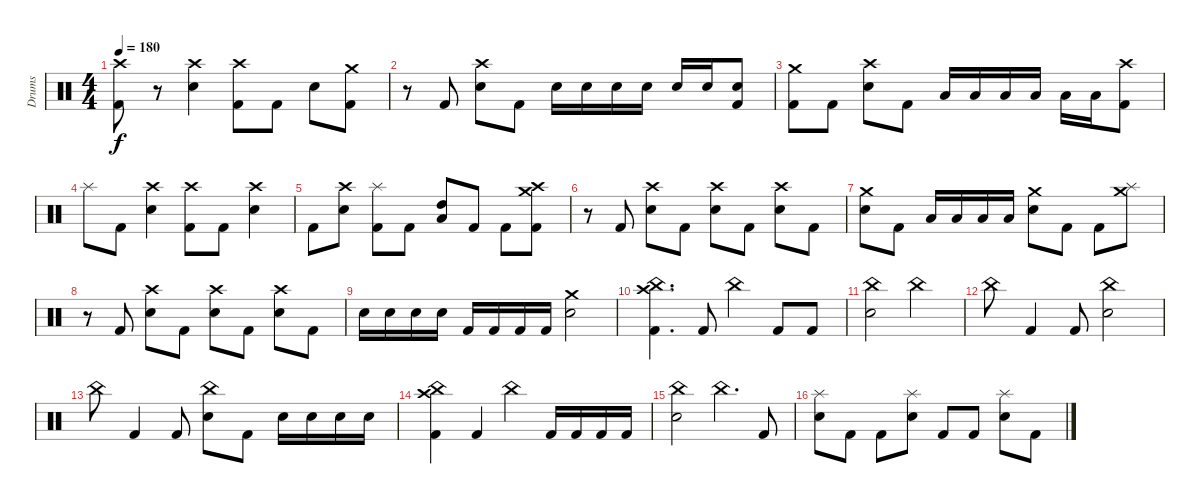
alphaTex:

\track ("Drums" "Drums") {instrument percussion}
\staff {score}
\articulation defaults
\ts (4 4)
\tempo 180
\clef neutral
\ks c
("Crash high (hit)" "Kick (hit) 2").8{dy f} r.8 ("Crash high (hit)" "Snare (hit) 2").4 ("Crash high (hit)" "Kick (hit) 2").8 "Kick (hit) 2".8 "Snare (hit) 2".8 ("Crash medium (hit)" "Kick (hit) 2").8 |
r.8 "Kick (hit) 2".8 ("Crash high (hit)" "Snare (hit) 2").8 "Kick (hit) 2".8 "Snare (hit) 2".16 "Snare (hit) 2".16 "Snare (hit) 2".16 "Snare (hit) 2".16 "Snare (hit) 2".16 "Snare (hit) 2".16 ("Snare (hit) 2" "Kick (hit) 2").8 |
("Crash medium (hit)" "Kick (hit) 2").8 "Kick (hit) 2".8 ("Crash high (hit)" "Snare (hit) 2").8 "Kick (hit) 2".8 "Low Tom (hit)".16 "Low Tom (hit)".16 "Low Floor Tom (hit)".16 "Low Floor Tom (hit)".16 "Low Floor Tom (hit)".16 "Low Floor Tom (hit)".16 ("Crash high (hit)" "Kick (hit) 2").8 |
"Splash (hit)".8 "Kick (hit) 2".8 ("Crash high (hit)" "Snare (hit) 2").4 ("Crash high (hit)" "Kick (hit) 2").8 "Kick (hit) 2".8 ("Crash high (hit)" "Snare (hit) 2").4 |
"Kick (hit) 2".8 ("Crash high (hit)" "Snare (hit) 2").8 ("Splash (hit)" "Kick (hit) 2").8 "Kick (hit) 2".8 ("High Tom (hit)" "Low Tom (hit)").8 "Kick (hit) 2".8 "Kick (hit) 2".8 ("Crash high (hit)" "Crash medium (hit)" "Kick (hit) 2").8 |
r.8 "Kick (hit) 2".8 ("Crash high (hit)" "Snare (hit) 2").8 "Kick (hit) 2".8 ("Crash high (hit)" "Snare (hit) 2").8 "Kick (hit) 2".8 ("Crash high (hit)" "Snare (hit) 2").8 "Kick (hit) 2".8 |
("Crash medium (hit)" "Snare (hit) 2").8 "Kick (hit) 2".8 "Low Tom (hit)".16 "Low Tom (hit)".16 "Low Floor Tom (hit)".16 "Low Floor Tom (hit)".16 ("Crash medium (hit)" "Snare (hit) 2").8 "Kick (hit) 2".8 "Kick (hit) 2".8 ("Crash medium (hit)" "Splash (hit)").8 |
r.8 "Kick (hit) 2".8 ("Crash high (hit)" "Snare (hit) 2").8 "Kick (hit) 2".8 ("Crash high (hit)" "Snare (hit) 2").8 "Kick (hit) 2".8 ("Crash high (hit)" "Snare (hit) 2").8 "Kick (hit) 2".8 |
"Snare (hit) 2".16 "Snare (hit) 2".16 "Snare (hit) 2".16 "Snare (hit) 2".16 "Kick (hit) 2".16 "Kick (hit) 2".16 "Kick (hit) 2".16 "Kick (hit) 2".16 ("Crash medium (hit)" "Snare (hit) 2").2 |
("Crash high (hit)" "China (hit)" "Kick (hit) 2").4{d} "Kick (hit) 2".8 "China (hit)".4 "Kick (hit) 2".8 "Kick (hit) 2".8 |
("China (hit)" "Snare (hit) 2").2 "China (hit)".2 |
"China (hit)".8 "Kick (hit) 2".4 "Kick (hit) 2".8 ("China (hit)" "Snare (hit) 2").2 |
"China (hit)".8 "Kick (hit) 2".4 "Kick (hit) 2".8 ("China (hit)" "Snare (hit) 2").8 "Kick (hit) 2".8 "Snare (hit) 2".16 "Snare (hit) 2".16 "Snare (hit) 2".16 "Snare (hit) 2".16 |
("China (hit)" "Crash high (hit)" "Kick (hit) 2").4 "Kick (hit) 2".4 "China (hit)".4 "Kick (hit) 2".16 "Kick (hit) 2".16 "Kick (hit) 2".16 "Kick (hit) 2".16 |
("China (hit)" "Snare (hit) 2").2 "China (hit)".4{d} "Kick (hit) 2".8 |
("Splash (hit)" "Snare (hit) 2").8 "Kick (hit) 2".8 "Kick (hit) 2".8 ("Splash (hit)" "Snare (hit) 2").8 "Kick (hit) 2".8 "Kick (hit) 2".8 ("Splash (hit)" "Snare (hit) 2").8 "Kick (hit) 2".8
